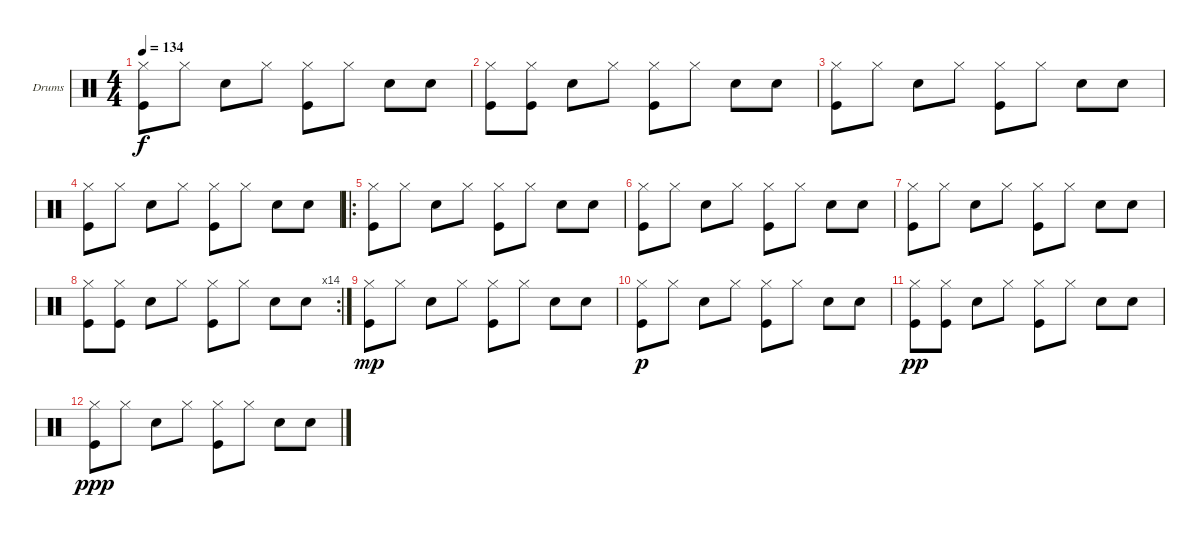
\defaultSystemsLayout 4
\bracketExtendMode groupsimilarinstruments
\firstSystemTrackNameOrientation horizontal
\otherSystemsTrackNameOrientation horizontal
\track ("Гурьянов" "Drums") {instrument percussion}
\staff {score}
\articulation defaults
\ts (4 4)
\tempo 134
\clef neutral
\scale
0.333333
\ks c
("Hi-Hat (closed)" "Kick (hit)").8{dy f} "Hi-Hat (closed)".8 "Snare (hit) 2".8 "Hi-Hat (closed)".8 ("Hi-Hat (closed)" "Kick (hit)").8 "Hi-Hat (closed)".8 "Snare (hit) 2".8 "Snare (hit) 2".8 |
\scale
0.333333 ("Hi-Hat (closed)" "Kick (hit)").8 ("Hi-Hat (closed)" "Kick (hit)").8 "Snare (hit) 2".8 "Hi-Hat (closed)".8 ("Hi-Hat (closed)" "Kick (hit)").8 "Hi-Hat (closed)".8 "Snare (hit) 2".8 "Snare (hit) 2".8 |
\scale
0.311475 ("Hi-Hat (closed)" "Kick (hit)").8 "Hi-Hat (closed)".8 "Snare (hit) 2".8 "Hi-Hat (closed)".8 ("Hi-Hat (closed)" "Kick (hit)").8 "Hi-Hat (closed)".8 "Snare (hit) 2".8 "Snare (hit) 2".8 |
\scale
0.311475 ("Hi-Hat (closed)" "Kick (hit)").8 "Hi-Hat (closed)".8 "Snare (hit) 2".8 "Hi-Hat (closed)".8 ("Hi-Hat (closed)" "Kick (hit)").8 "Hi-Hat (closed)".8 "Snare (hit) 2".8 "Snare (hit) 2".8 |
\ro
\scale
0.377049 ("Hi-Hat (closed)" "Kick (hit)").8 "Hi-Hat (closed)".8 "Snare (hit) 2".8 "Hi-Hat (closed)".8 ("Hi-Hat (closed)" "Kick (hit)").8 "Hi-Hat (closed)".8 "Snare (hit) 2".8 "Snare (hit) 2".8 |
\scale
0.322034 ("Hi-Hat (closed)" "Kick (hit)").8 "Hi-Hat (closed)".8 "Snare (hit) 2".8 "Hi-Hat (closed)".8 ("Hi-Hat (closed)" "Kick (hit)").8 "Hi-Hat (closed)".8 "Snare (hit) 2".8 "Snare (hit) 2".8 |
\scale
0.322034 ("Hi-Hat (closed)" "Kick (hit)").8 "Hi-Hat (closed)".8 "Snare (hit) 2".8 "Hi-Hat (closed)".8 ("Hi-Hat (closed)" "Kick (hit)").8 "Hi-Hat (closed)".8 "Snare (hit) 2".8 "Snare (hit) 2".8 |
\rc 14
\scale
0.355932 ("Hi-Hat (closed)" "Kick (hit)").8 ("Hi-Hat (closed)" "Kick (hit)").8 "Snare (hit) 2".8 "Hi-Hat (closed)".8 ("Hi-Hat (closed)" "Kick (hit)").8 "Hi-Hat (closed)".8 "Snare (hit) 2".8 "Snare (hit) 2".8 |
\scale
0.333333 ("Hi-Hat (closed)" "Kick (hit)").8{dy mp} "Hi-Hat (closed)".8 "Snare (hit) 2".8 "Hi-Hat (closed)".8 ("Hi-Hat (closed)" "Kick (hit)").8 "Hi-Hat (closed)".8 "Snare (hit) 2".8 "Snare (hit) 2".8 |
\scale
0.333333 ("Hi-Hat (closed)" "Kick (hit)").8{dy p} "Hi-Hat (closed)".8 "Snare (hit) 2".8 "Hi-Hat (closed)".8 ("Hi-Hat (closed)" "Kick (hit)").8 "Hi-Hat (closed)".8 "Snare (hit) 2".8 "Snare (hit) 2".8 |
\scale
0.333333 ("Hi-Hat (closed)" "Kick (hit)").8{dy pp} ("Hi-Hat (closed)" "Kick (hit)").8 "Snare (hit) 2".8 "Hi-Hat (closed)".8 ("Hi-Hat (closed)" "Kick (hit)").8 "Hi-Hat (closed)".8 "Snare (hit) 2".8 "Snare (hit) 2".8 |
("Hi-Hat (closed)" "Kick (hit)").8{dy ppp} "Hi-Hat (closed)".8 "Snare (hit) 2".8 "Hi-Hat (closed)".8 ("Hi-Hat (closed)" "Kick (hit)").8 "Hi-Hat (closed)".8 "Snare (hit) 2".8 "Snare (hit) 2".8
